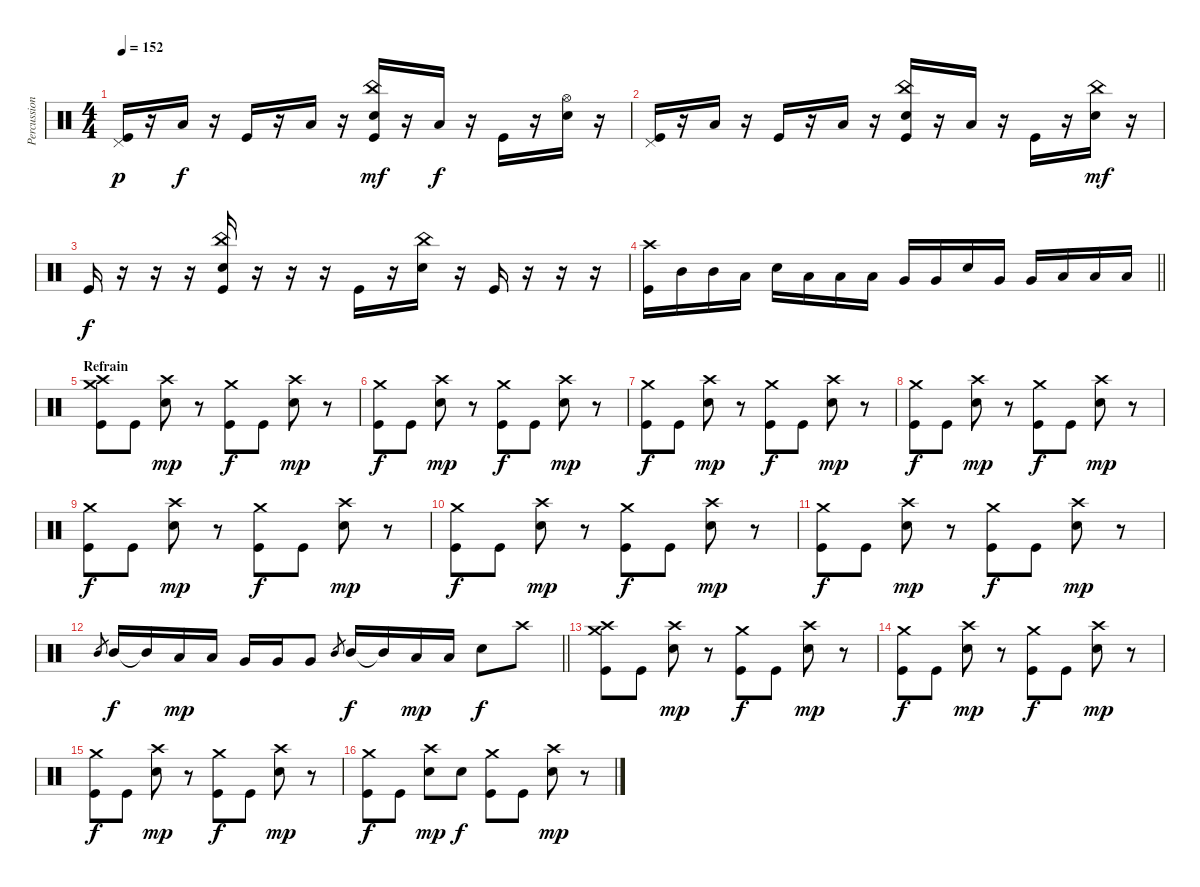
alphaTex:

\track ("Percussions" "Percussion") {instrument percussion}
\staff {score}
\articulation defaults
\ts (4 4)
\tempo 152
\clef neutral
\ks c
("Pedal Hi-Hat (hit)" "Kick (hit)").16{dy p} r.16 "Low Floor Tom (hit)".16{dy f} r.16 "Kick (hit)".16 r.16 "Low Floor Tom (hit)".16 r.16 ("China (hit)" "Snare (hit) 2" "Kick (hit)").16{dy mf} r.16 "Low Floor Tom (hit)".16{dy f} r.16 "Kick (hit)".16 r.16 ("Hi-Hat (open)" "Snare (hit) 2").16 r.16 |
("Pedal Hi-Hat (hit)" "Kick (hit)").16 r.16 "Low Floor Tom (hit)".16 r.16 "Kick (hit)".16 r.16 "Low Floor Tom (hit)".16 r.16 ("China (hit)" "Snare (hit) 2" "Kick (hit)").16 r.16 "Low Floor Tom (hit)".16 r.16 "Kick (hit)".16 r.16 ("China (hit)" "Snare (hit) 2").16{dy mf} r.16 |
"Kick (hit)".16{dy f} r.16 r.16 r.16 ("China (hit)" "Snare (hit) 2" "Kick (hit)").16 r.16 r.16 r.16 "Kick (hit)".16 r.16 ("China (hit)" "Snare (hit) 2").16 r.16 "Kick (hit)".16 r.16 r.16 r.16 |
\barLineRight lightlight
("Crash high (hit)" "Kick (hit)").16 "Mid Tom (hit)".16 "Mid Tom (hit)".16 "Low Tom (hit)".16 "Snare (hit) 2".16 "Low Tom (hit)".16 "Low Tom (hit)".16 "Low Tom (hit)".16 "Very Low Tom (hit)".16 "Very Low Tom (hit)".16 "Snare (hit) 2".16 "Very Low Tom (hit)".16 "Very Low Tom (hit)".16 "Low Floor Tom (hit)".16 "Low Floor Tom (hit)".16 "Low Floor Tom (hit)".16 |
\section ("" "Refrain")
("Crash high (hit)" "Crash medium (hit)" "Kick (hit)").8 "Kick (hit)".8 ("Crash high (hit)" "Snare (hit) 2").8{dy mp} r.8 ("Crash medium (hit)" "Kick (hit)").8{dy f} "Kick (hit)".8 ("Crash high (hit)" "Snare (hit) 2").8{dy mp} r.8 |
("Crash medium (hit)" "Kick (hit)").8{dy f} "Kick (hit)".8 ("Crash high (hit)" "Snare (hit) 2").8{dy mp} r.8 ("Crash medium (hit)" "Kick (hit)").8{dy f} "Kick (hit)".8 ("Crash high (hit)" "Snare (hit) 2").8{dy mp} r.8 |
("Crash medium (hit)" "Kick (hit)").8{dy f} "Kick (hit)".8 ("Crash high (hit)" "Snare (hit) 2").8{dy mp} r.8 ("Crash medium (hit)" "Kick (hit)").8{dy f} "Kick (hit)".8 ("Crash high (hit)" "Snare (hit) 2").8{dy mp} r.8 |
("Crash medium (hit)" "Kick (hit)").8{dy f} "Kick (hit)".8 ("Crash high (hit)" "Snare (hit) 2").8{dy mp} r.8 ("Crash medium (hit)" "Kick (hit)").8{dy f} "Kick (hit)".8 ("Crash high (hit)" "Snare (hit) 2").8{dy mp} r.8 |
("Crash medium (hit)" "Kick (hit)").8{dy f} "Kick (hit)".8 ("Crash high (hit)" "Snare (hit) 2").8{dy mp} r.8 ("Crash medium (hit)" "Kick (hit)").8{dy f} "Kick (hit)".8 ("Crash high (hit)" "Snare (hit) 2").8{dy mp} r.8 |
("Crash medium (hit)" "Kick (hit)").8{dy f} "Kick (hit)".8 ("Crash high (hit)" "Snare (hit) 2").8{dy mp} r.8 ("Crash medium (hit)" "Kick (hit)").8{dy f} "Kick (hit)".8 ("Crash high (hit)" "Snare (hit) 2").8{dy mp} r.8 |
("Crash medium (hit)" "Kick (hit)").8{dy f} "Kick (hit)".8 ("Crash high (hit)" "Snare (hit) 2").8{dy mp} r.8 ("Crash medium (hit)" "Kick (hit)").8{dy f} "Kick (hit)".8 ("Crash high (hit)" "Snare (hit) 2").8{dy mp} r.8 |
\barLineRight lightlight "Mid Tom (hit)".8{gr} "Mid Tom (hit)".16{dy f} "Mid Tom (hit)"{t}.16 "Low Tom (hit)".16{dy mp} "Low Tom (hit)".16 "Very Low Tom (hit)".16 "Very Low Tom (hit)".16 "Very Low Tom (hit)".8 "Mid Tom (hit)".8{gr} "Mid Tom (hit)".16{dy f} "Mid Tom (hit)"{t}.16 "Low Tom (hit)".16{dy mp} "Low Tom (hit)".16 "Snare (hit) 2".8{dy f} "Crash high (hit)".8
|
("Crash high (hit)" "Crash medium (hit)" "Kick (hit)").8 "Kick (hit)".8 ("Crash high (hit)" "Snare (hit) 2").8{dy mp} r.8 ("Crash medium (hit)" "Kick (hit)").8{dy f} "Kick (hit)".8 ("Crash high (hit)" "Snare (hit) 2").8{dy mp} r.8 |
("Crash medium (hit)" "Kick (hit)").8{dy f} "Kick (hit)".8 ("Crash high (hit)" "Snare (hit) 2").8{dy mp} r.8 ("Crash medium (hit)" "Kick (hit)").8{dy f} "Kick (hit)".8 ("Crash high (hit)" "Snare (hit) 2").8{dy mp} r.8 |
("Crash medium (hit)" "Kick (hit)").8{dy f} "Kick (hit)".8 ("Crash high (hit)" "Snare (hit) 2").8{dy mp} r.8 ("Crash medium (hit)" "Kick (hit)").8{dy f} "Kick (hit)".8 ("Crash high (hit)" "Snare (hit) 2").8{dy mp} r.8 |
("Crash medium (hit)" "Kick (hit)").8{dy f} "Kick (hit)".8 ("Crash high (hit)" "Snare (hit) 2").8{dy mp} "Snare (hit) 2".8{dy f} ("Crash medium (hit)" "Kick (hit)").8 "Kick (hit)".8 ("Crash high (hit)" "Snare (hit) 2").8{dy mp} r.8
